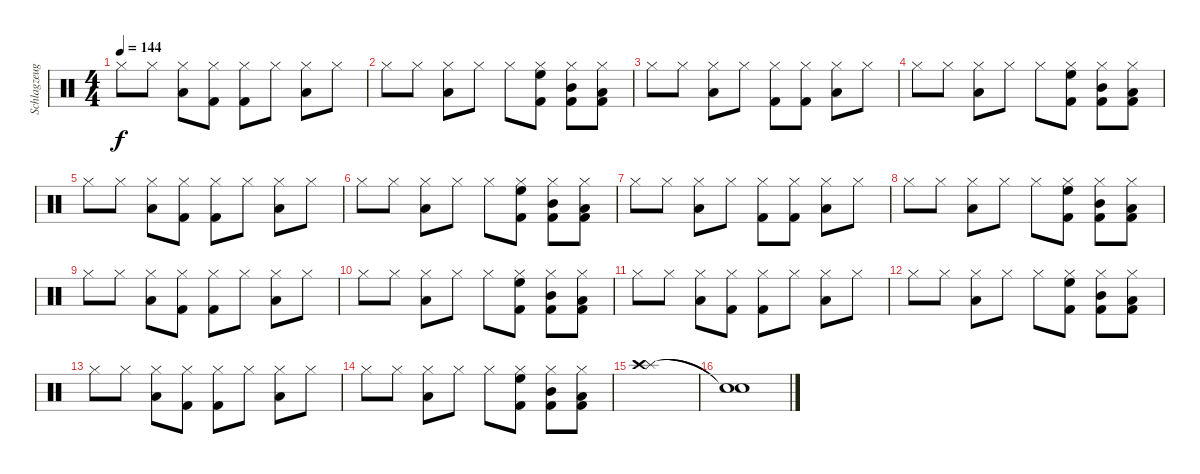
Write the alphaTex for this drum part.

\track ("Schlagzeug" "Schlagzeug") {instrument percussion}
\staff {score}
\articulation defaults
\ts (4 4)
\tempo 144
\clef neutral
\ks c "Hi-Hat (closed)".8{dy f} "Hi-Hat (closed)".8
("Hi-Hat (closed)" "Low Tom (hit)").8 ("Hi-Hat (closed)" "Kick (hit) 2").8 ("Hi-Hat (closed)" "Kick (hit) 2").8 "Hi-Hat (closed)".8 ("Hi-Hat (closed)" "Low Tom (hit)").8 "Hi-Hat (closed)".8 |
"Hi-Hat (closed)".8 "Hi-Hat (closed)".8 ("Hi-Hat (closed)" "Low Tom (hit)").8 "Hi-Hat (closed)".8 "Hi-Hat (closed)".8 ("Hi-Hat (closed)" "High Floor Tom (hit)" "Kick (hit) 2").8 ("Hi-Hat (closed)" "Mid Tom (hit)" "Kick (hit) 2").8 ("Hi-Hat (closed)" "Low Tom (hit)" "Kick (hit) 2").8 |
"Hi-Hat (closed)".8 "Hi-Hat (closed)".8 ("Hi-Hat (closed)" "Low Tom (hit)").8 "Hi-Hat (closed)".8 ("Hi-Hat (closed)" "Kick (hit) 2").8 ("Hi-Hat (closed)" "Kick (hit) 2").8 ("Hi-Hat (closed)" "Low Tom (hit)").8 "Hi-Hat (closed)".8 |
"Hi-Hat (closed)".8 "Hi-Hat (closed)".8 ("Hi-Hat (closed)" "Low Tom (hit)").8 "Hi-Hat (closed)".8 "Hi-Hat (closed)".8 ("Hi-Hat (closed)" "High Floor Tom (hit)" "Kick (hit) 2").8 ("Hi-Hat (closed)" "Mid Tom (hit)" "Kick (hit) 2").8 ("Hi-Hat (closed)" "Low Tom (hit)" "Kick (hit) 2").8 |
"Hi-Hat (closed)".8 "Hi-Hat (closed)".8 ("Hi-Hat (closed)" "Low Tom (hit)").8 ("Hi-Hat (closed)" "Kick (hit) 2").8 ("Hi-Hat (closed)" "Kick (hit) 2").8 "Hi-Hat (closed)".8 ("Hi-Hat (closed)" "Low Tom (hit)").8 "Hi-Hat (closed)".8 |
"Hi-Hat (closed)".8 "Hi-Hat (closed)".8 ("Hi-Hat (closed)" "Low Tom (hit)").8 "Hi-Hat (closed)".8 "Hi-Hat (closed)".8 ("Hi-Hat (closed)" "High Floor Tom (hit)" "Kick (hit) 2").8 ("Hi-Hat (closed)" "Mid Tom (hit)" "Kick (hit) 2").8 ("Hi-Hat (closed)" "Low Tom (hit)" "Kick (hit) 2").8 |
"Hi-Hat (closed)".8 "Hi-Hat (closed)".8 ("Hi-Hat (closed)" "Low Tom (hit)").8 "Hi-Hat (closed)".8 ("Hi-Hat (closed)" "Kick (hit) 2").8 ("Hi-Hat (closed)" "Kick (hit) 2").8 ("Hi-Hat (closed)" "Low Tom (hit)").8 "Hi-Hat (closed)".8 |
"Hi-Hat (closed)".8 "Hi-Hat (closed)".8 ("Hi-Hat (closed)" "Low Tom (hit)").8 "Hi-Hat (closed)".8 "Hi-Hat (closed)".8 ("Hi-Hat (closed)" "High Floor Tom (hit)" "Kick (hit) 2").8 ("Hi-Hat (closed)" "Mid Tom (hit)" "Kick (hit) 2").8 ("Hi-Hat (closed)" "Low Tom (hit)" "Kick (hit) 2").8 |
"Hi-Hat (closed)".8 "Hi-Hat (closed)".8 ("Hi-Hat (closed)" "Low Tom (hit)").8 ("Hi-Hat (closed)" "Kick (hit) 2").8 ("Hi-Hat (closed)" "Kick (hit) 2").8 "Hi-Hat (closed)".8 ("Hi-Hat (closed)" "Low Tom (hit)").8 "Hi-Hat (closed)".8 |
"Hi-Hat (closed)".8 "Hi-Hat (closed)".8 ("Hi-Hat (closed)" "Low Tom (hit)").8 "Hi-Hat (closed)".8 "Hi-Hat (closed)".8 ("Hi-Hat (closed)" "High Floor Tom (hit)" "Kick (hit) 2").8 ("Hi-Hat (closed)" "Mid Tom (hit)" "Kick (hit) 2").8 ("Hi-Hat (closed)" "Low Tom (hit)" "Kick (hit) 2").8 |
"Hi-Hat (closed)".8 "Hi-Hat (closed)".8 ("Hi-Hat (closed)" "Low Tom (hit)").8 ("Hi-Hat (closed)" "Kick (hit) 2").8 ("Hi-Hat (closed)" "Kick (hit) 2").8 "Hi-Hat (closed)".8 ("Hi-Hat (closed)" "Low Tom (hit)").8 "Hi-Hat (closed)".8 |
"Hi-Hat (closed)".8 "Hi-Hat (closed)".8 ("Hi-Hat (closed)" "Low Tom (hit)").8 "Hi-Hat (closed)".8 "Hi-Hat (closed)".8 ("Hi-Hat (closed)" "High Floor Tom (hit)" "Kick (hit) 2").8 ("Hi-Hat (closed)" "Mid Tom (hit)" "Kick (hit) 2").8 ("Hi-Hat (closed)" "Low Tom (hit)" "Kick (hit) 2").8 |
"Hi-Hat (closed)".8 "Hi-Hat (closed)".8 ("Hi-Hat (closed)" "Low Tom (hit)").8 ("Hi-Hat (closed)" "Kick (hit) 2").8 ("Hi-Hat (closed)" "Kick (hit) 2").8 "Hi-Hat (closed)".8 ("Hi-Hat (closed)" "Low Tom (hit)").8 "Hi-Hat (closed)".8 |
"Hi-Hat (closed)".8 "Hi-Hat (closed)".8 ("Hi-Hat (closed)" "Low Tom (hit)").8 "Hi-Hat (closed)".8 "Hi-Hat (closed)".8 ("Hi-Hat (closed)" "High Floor Tom (hit)" "Kick (hit) 2").8 ("Hi-Hat (closed)" "Mid Tom (hit)" "Kick (hit) 2").8 ("Hi-Hat (closed)" "Low Tom (hit)" "Kick (hit) 2").8 |
("Splash (hit)" "Crash high (hit)").1 |
("Snare (hit)"{t} "Snare (hit)"{t}).1
